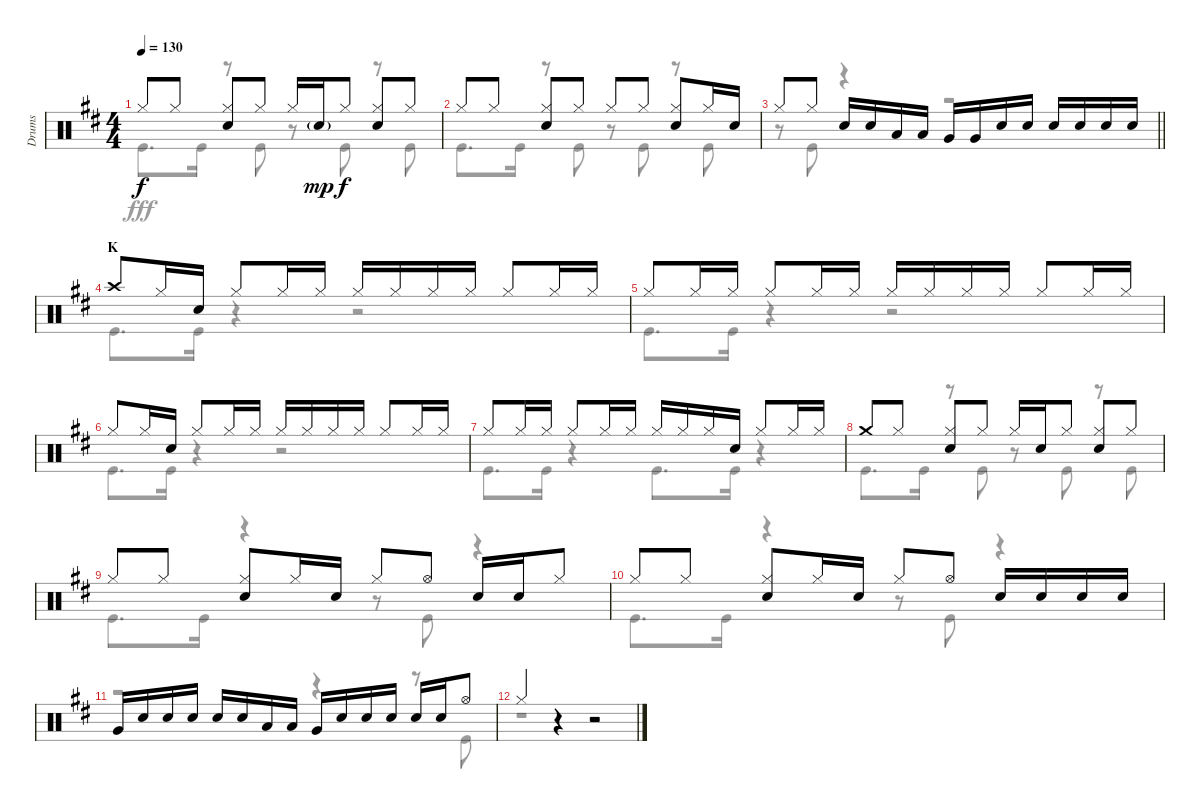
\track ("Drums" "Drums") {instrument percussion}
\staff {score}
\articulation defaults
\voice
\ts (4 4)
\tempo 130
\clef neutral
\ks d "Hi-Hat (closed)".8{dy f} "Hi-Hat (closed)".8
("Hi-Hat (closed)" "Snare (hit) 2").8 "Hi-Hat (closed)".8 "Hi-Hat (closed)".16 "Snare (hit) 2"{g}.16{dy mp} "Hi-Hat (closed)".8{dy f} ("Hi-Hat (closed)" "Snare (hit) 2").8 "Hi-Hat (closed)".8 |
"Hi-Hat (closed)".8 "Hi-Hat (closed)".8 ("Hi-Hat (closed)" "Snare (hit) 2").8 "Hi-Hat (closed)".8 "Hi-Hat (closed)".8 "Hi-Hat (closed)".8 ("Hi-Hat (closed)" "Snare (hit) 2").8 "Hi-Hat (closed)".16 "Snare (hit) 2".16 |
\barLineRight lightlight "Hi-Hat (closed)".8 "Hi-Hat (closed)".8 "Snare (hit) 2".16 "Snare (hit) 2".16 "Low Tom (hit)".16 "Low Tom (hit)".16 "Very Low Tom (hit)".16 "Very Low Tom (hit)".16 "Snare (hit) 2".16 "Snare (hit) 2".16 "Snare (hit) 2".16 "Snare (hit) 2".16 "Snare (hit) 2".16 "Snare (hit) 2".16
|
\section ("" "K")
"Crash high (hit)".8 "Hi-Hat (closed)".16 "Snare (hit) 2".16 "Hi-Hat (closed)".8 "Hi-Hat (closed)".16 "Hi-Hat (closed)".16 "Hi-Hat (closed)".16 "Hi-Hat (closed)".16 "Hi-Hat (closed)".16 "Hi-Hat (closed)".16 "Hi-Hat (closed)".8 "Hi-Hat (closed)".16 "Hi-Hat (closed)".16 |
"Hi-Hat (closed)".8 "Hi-Hat (closed)".16 "Hi-Hat (closed)".16 "Hi-Hat (closed)".8 "Hi-Hat (closed)".16 "Hi-Hat (closed)".16 "Hi-Hat (closed)".16 "Hi-Hat (closed)".16 "Hi-Hat (closed)".16 "Hi-Hat (closed)".16 "Hi-Hat (closed)".8 "Hi-Hat (closed)".16 "Hi-Hat (closed)".16 |
"Hi-Hat (closed)".8 "Hi-Hat (closed)".16 "Snare (hit) 2".16 "Hi-Hat (closed)".8 "Hi-Hat (closed)".16 "Hi-Hat (closed)".16 "Hi-Hat (closed)".16 "Hi-Hat (closed)".16 "Hi-Hat (closed)".16 "Hi-Hat (closed)".16 "Hi-Hat (closed)".8 "Hi-Hat (closed)".16 "Hi-Hat (closed)".16 |
"Hi-Hat (closed)".8 "Hi-Hat (closed)".16 "Hi-Hat (closed)".16 "Hi-Hat (closed)".8 "Hi-Hat (closed)".16 "Hi-Hat (closed)".16 "Hi-Hat (closed)".16 "Hi-Hat (closed)".16 "Hi-Hat (closed)".16 "Snare (hit) 2".16 "Hi-Hat (closed)".8 "Hi-Hat (closed)".16 "Hi-Hat (closed)".16 |
"Crash medium (hit)".8 "Hi-Hat (closed)".8 ("Hi-Hat (closed)" "Snare (hit) 2").8 "Hi-Hat (closed)".8 "Hi-Hat (closed)".16 "Snare (hit) 2".16 "Hi-Hat (closed)".8 ("Hi-Hat (closed)" "Snare (hit) 2").8 "Hi-Hat (closed)".8 |
"Hi-Hat (closed)".8 "Hi-Hat (closed)".8 ("Hi-Hat (closed)" "Snare (hit) 2").8 "Hi-Hat (closed)".16 "Snare (hit) 2".16 "Hi-Hat (closed)".8 "Hi-Hat (open)".8 "Snare (hit) 2".16 "Snare (hit) 2".16 "Hi-Hat (closed)".8 |
"Hi-Hat (closed)".8 "Hi-Hat (closed)".8 ("Hi-Hat (closed)" "Snare (hit) 2").8 "Hi-Hat (closed)".16 "Snare (hit) 2".16 "Hi-Hat (closed)".8 "Hi-Hat (open)".8 "Snare (hit) 2".16 "Snare (hit) 2".16 "Snare (hit) 2".16 "Snare (hit) 2".16 |
"Very Low Tom (hit)".16 "Snare (hit) 2".16 "Snare (hit) 2".16 "Snare (hit) 2".16 "Snare (hit) 2".16 "Snare (hit) 2".16 "Low Tom (hit)".16 "Low Tom (hit)".16 "Very Low Tom (hit)".16 "Snare (hit) 2".16 "Snare (hit) 2".16 "Snare (hit) 2".16 "Snare (hit) 2".16 "Snare (hit) 2".16 "Hi-Hat (open)".8 |
"Hi-Hat (closed)".4 r.4 r.2
\voice
\clef neutral
\ottava regular
\simile none
\ks d "Kick (hit)".8{d dy fff} "Kick (hit)".16
r.8 "Kick (hit)".8 r.8 "Kick (hit)".8 r.8 "Kick (hit)".8 |
"Kick (hit)".8{d} "Kick (hit)".16 r.8 "Kick (hit)".8 r.8 "Kick (hit)".8 r.8 "Kick (hit)".8 |
\barLineRight lightlight
r.8 "Kick (hit)".8 r.4 r.2 |
"Kick (hit)".8{d} "Kick (hit)".16 r.4 r.2 |
"Kick (hit)".8{d} "Kick (hit)".16 r.4 r.2 |
"Kick (hit)".8{d} "Kick (hit)".16 r.4 r.2 |
"Kick (hit)".8{d} "Kick (hit)".16 r.4 "Kick (hit)".8{d} "Kick (hit)".16 r.4 |
"Kick (hit)".8{d} "Kick (hit)".16 r.8 "Kick (hit)".8 r.8 "Kick (hit)".8 r.8 "Kick (hit)".8 |
"Kick (hit)".8{d} "Kick (hit)".16 r.4 r.8 "Kick (hit)".8 r.4 |
"Kick (hit)".8{d} "Kick (hit)".16 r.4 r.8 "Kick (hit)".8 r.4 |
r.2 r.4 r.8 "Kick (hit)".8 |
r.1
